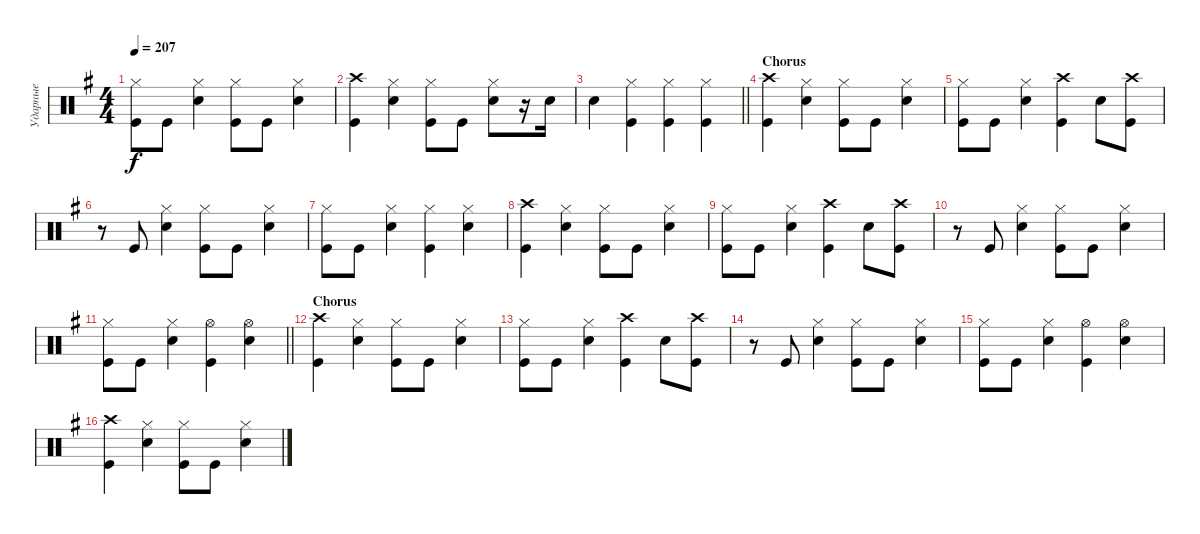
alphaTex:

\track ("Ударные" "Ударные") {instrument percussion}
\staff {score}
\articulation defaults
\ts (4 4)
\tempo 207
\clef neutral
\ks eminor
("Kick (hit)" "Hi-Hat (closed)").8{dy f} "Kick (hit)".8 ("Snare (hit) 2" "Hi-Hat (closed)").4 ("Kick (hit)" "Hi-Hat (closed)").8 "Kick (hit)".8 ("Snare (hit) 2" "Hi-Hat (closed)").4 |
("Kick (hit)" "Crash high (hit)").4 ("Snare (hit) 2" "Hi-Hat (closed)").4 ("Kick (hit)" "Hi-Hat (closed)").8 "Kick (hit)".8 ("Snare (hit) 2" "Hi-Hat (closed)").8 r.16 "Snare (hit) 2".16 |
\barLineRight lightlight "Snare (hit) 2".4
("Hi-Hat (closed)" "Kick (hit)").4 ("Hi-Hat (closed)" "Kick (hit)").4 ("Hi-Hat (closed)" "Kick (hit)").4 |
\section ("" "Chorus")
("Kick (hit)" "Crash high (hit)").4 ("Snare (hit) 2" "Hi-Hat (closed)").4 ("Kick (hit)" "Hi-Hat (closed)").8 "Kick (hit)".8 ("Snare (hit) 2" "Hi-Hat (closed)").4 |
("Kick (hit)" "Hi-Hat (closed)").8 "Kick (hit)".8 ("Snare (hit) 2" "Hi-Hat (closed)").4 ("Kick (hit)" "Crash high (hit)").4 "Snare (hit) 2".8 ("Crash high (hit)" "Kick (hit)").8 |
r.8 "Kick (hit)".8 ("Snare (hit) 2" "Hi-Hat (closed)").4 ("Kick (hit)" "Hi-Hat (closed)").8 "Kick (hit)".8 ("Snare (hit) 2" "Hi-Hat (closed)").4 |
("Kick (hit)" "Hi-Hat (closed)").8 "Kick (hit)".8 ("Snare (hit) 2" "Hi-Hat (closed)").4 ("Kick (hit)" "Hi-Hat (closed)").4 ("Snare (hit) 2" "Hi-Hat (closed)").4 |
("Kick (hit)" "Crash high (hit)").4 ("Snare (hit) 2" "Hi-Hat (closed)").4 ("Kick (hit)" "Hi-Hat (closed)").8 "Kick (hit)".8 ("Snare (hit) 2" "Hi-Hat (closed)").4 |
("Kick (hit)" "Hi-Hat (closed)").8 "Kick (hit)".8 ("Snare (hit) 2" "Hi-Hat (closed)").4 ("Kick (hit)" "Crash high (hit)").4 "Snare (hit) 2".8 ("Crash high (hit)" "Kick (hit)").8 |
r.8 "Kick (hit)".8 ("Snare (hit) 2" "Hi-Hat (closed)").4 ("Kick (hit)" "Hi-Hat (closed)").8 "Kick (hit)".8 ("Snare (hit) 2" "Hi-Hat (closed)").4 |
\barLineRight lightlight
("Kick (hit)" "Hi-Hat (closed)").8 "Kick (hit)".8 ("Snare (hit) 2" "Hi-Hat (closed)").4 ("Kick (hit)" "Hi-Hat (open)").4 ("Snare (hit) 2" "Hi-Hat (open)").4 |
\section ("" "Chorus")
("Kick (hit)" "Crash high (hit)").4 ("Snare (hit) 2" "Hi-Hat (closed)").4 ("Kick (hit)" "Hi-Hat (closed)").8 "Kick (hit)".8 ("Snare (hit) 2" "Hi-Hat (closed)").4 |
("Kick (hit)" "Hi-Hat (closed)").8 "Kick (hit)".8 ("Snare (hit) 2" "Hi-Hat (closed)").4 ("Kick (hit)" "Crash high (hit)").4 "Snare (hit) 2".8 ("Crash high (hit)" "Kick (hit)").8 |
r.8 "Kick (hit)".8 ("Snare (hit) 2" "Hi-Hat (closed)").4 ("Kick (hit)" "Hi-Hat (closed)").8 "Kick (hit)".8 ("Snare (hit) 2" "Hi-Hat (closed)").4 |
("Kick (hit)" "Hi-Hat (closed)").8 "Kick (hit)".8 ("Snare (hit) 2" "Hi-Hat (closed)").4 ("Kick (hit)" "Hi-Hat (open)").4 ("Snare (hit) 2" "Hi-Hat (open)").4 |
("Kick (hit)" "Crash high (hit)").4 ("Snare (hit) 2" "Hi-Hat (closed)").4 ("Kick (hit)" "Hi-Hat (closed)").8 "Kick (hit)".8 ("Snare (hit) 2" "Hi-Hat (closed)").4
